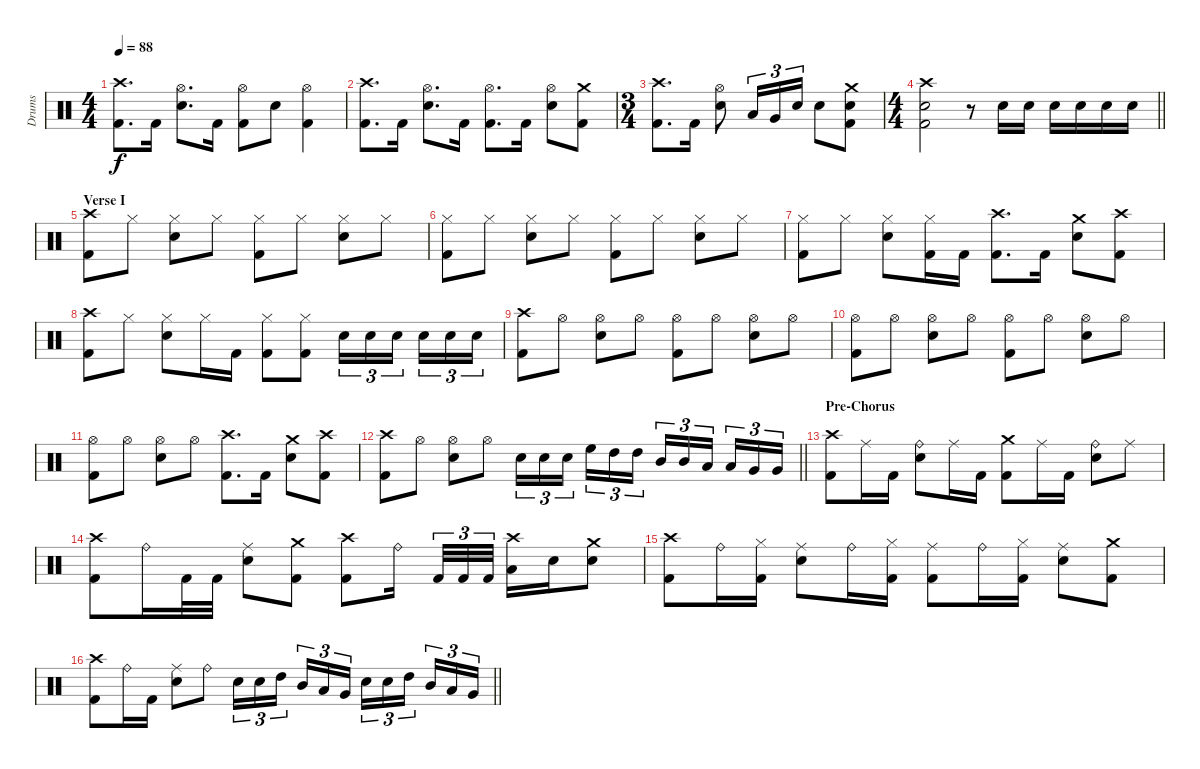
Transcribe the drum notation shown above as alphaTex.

\track ("Drums" "Drums") {instrument percussion}
\staff {score}
\articulation defaults
\ts (4 4)
\tempo 88
\clef neutral
\ks c
("Crash high (hit)" "Kick (hit) 2").8{d dy f} "Kick (hit) 2".16 ("Hi-Hat (open)" "Snare (hit) 2").8{d} "Kick (hit) 2".16 ("Hi-Hat (open)" "Kick (hit) 2").8 "Snare (hit) 2".8 ("Hi-Hat (open)" "Kick (hit) 2").4 |
("Crash high (hit)" "Kick (hit) 2").8{d} "Kick (hit) 2".16 ("Hi-Hat (open)" "Snare (hit) 2").8{d} "Kick (hit) 2".16 ("Hi-Hat (open)" "Kick (hit) 2").8{d} "Kick (hit) 2".16 ("Hi-Hat (open)" "Snare (hit) 2").8 ("Crash medium (hit)" "Kick (hit) 2").8 |
\ts (3 4)
("Crash high (hit)" "Kick (hit) 2").8{d} "Kick (hit) 2".16 ("Hi-Hat (open)" "Snare (hit) 2").8 "Low Tom (hit)".16{tu (3 2)} "Very Low Tom (hit)".16{tu (3 2)} "Snare (hit) 2".16{tu (3 2)} "Snare (hit) 2".8 ("Crash medium (hit)" "Snare (hit) 2" "Kick (hit) 2").8 |
\ts (4 4)
\barLineRight lightlight
("Crash high (hit)" "Snare (hit) 2" "Kick (hit) 2").2 r.8 "Electric Snare (hit)".16 "Electric Snare (hit)".16 "Electric Snare (hit)".16 "Electric Snare (hit)".16 "Electric Snare (hit)".16 "Electric Snare (hit)".16 |
\section ("" "Verse I")
("Crash high (hit)" "Kick (hit) 2").8 "Hi-Hat (closed)".8 ("Hi-Hat (closed)" "Snare (hit) 2").8 "Hi-Hat (closed)".8 ("Hi-Hat (closed)" "Kick (hit) 2").8 "Hi-Hat (closed)".8 ("Hi-Hat (closed)" "Snare (hit) 2").8 "Hi-Hat (closed)".8 |
("Hi-Hat (closed)" "Kick (hit) 2").8 "Hi-Hat (closed)".8 ("Hi-Hat (closed)" "Snare (hit) 2").8 "Hi-Hat (closed)".8 ("Hi-Hat (closed)" "Kick (hit) 2").8 "Hi-Hat (closed)".8 ("Hi-Hat (closed)" "Snare (hit) 2").8 "Hi-Hat (closed)".8 |
("Hi-Hat (closed)" "Kick (hit) 2").8 "Hi-Hat (closed)".8 ("Hi-Hat (closed)" "Snare (hit) 2").8 ("Hi-Hat (closed)" "Kick (hit) 2").16 "Kick (hit) 2".16 ("Crash high (hit)" "Kick (hit) 2").8{d} "Kick (hit) 2".16 ("Crash medium (hit)" "Snare (hit) 2").8 ("Crash high (hit)" "Kick (hit) 2").8 |
("Crash high (hit)" "Kick (hit) 2").8 "Hi-Hat (closed)".8 ("Hi-Hat (closed)" "Snare (hit) 2").8 "Hi-Hat (closed)".16 "Kick (hit) 2".16 ("Hi-Hat (closed)" "Kick (hit) 2").8 ("Hi-Hat (closed)" "Kick (hit) 2").8 "Snare (hit) 2".16{tu (3 2)} "Snare (hit) 2".16{tu (3 2)} "Snare (hit) 2".16{tu (3 2) beam splitsecondary} "Snare (hit) 2".16{tu (3 2)} "Snare (hit) 2".16{tu (3 2)} "Snare (hit) 2".16{tu (3 2)} |
("Crash high (hit)" "Kick (hit) 2").8 "Hi-Hat (open)".8 ("Hi-Hat (open)" "Snare (hit) 2").8 "Hi-Hat (open)".8 ("Hi-Hat (open)" "Kick (hit) 2").8 "Hi-Hat (open)".8 ("Hi-Hat (open)" "Snare (hit) 2").8 "Hi-Hat (open)".8 |
("Hi-Hat (open)" "Kick (hit) 2").8 "Hi-Hat (open)".8 ("Hi-Hat (open)" "Snare (hit) 2").8 "Hi-Hat (open)".8 ("Hi-Hat (open)" "Kick (hit) 2").8 "Hi-Hat (open)".8 ("Hi-Hat (open)" "Snare (hit) 2").8 "Hi-Hat (open)".8 |
("Hi-Hat (open)" "Kick (hit) 2").8 "Hi-Hat (open)".8 ("Hi-Hat (open)" "Snare (hit) 2").8 "Hi-Hat (open)".8 ("Crash high (hit)" "Kick (hit) 2").8{d} "Kick (hit) 2".16 ("Crash medium (hit)" "Snare (hit) 2").8 ("Crash high (hit)" "Kick (hit) 2").8 |
\barLineRight lightlight
("Crash high (hit)" "Kick (hit) 2").8 "Hi-Hat (open)".8 ("Hi-Hat (open)" "Snare (hit) 2").8 "Hi-Hat (open)".8 "Snare (hit) 2".16{tu (3 2)} "Snare (hit) 2".16{tu (3 2)} "Snare (hit) 2".16{tu (3 2) beam splitsecondary} "High Floor Tom (hit)".16{tu (3 2)} "High Tom (hit)".16{tu (3 2)} "High Tom (hit)".16{tu (3 2)} "Mid Tom (hit)".16{tu (3 2)} "Mid Tom (hit)".16{tu (3 2)} "Low Tom (hit)".16{tu (3 2) beam splitsecondary} "Low Tom (hit)".16{tu (3 2)} "Very Low Tom (hit)".16{tu (3 2)} "Very Low Tom (hit)".16{tu (3 2)} |
\section ("" "Pre-Chorus")
("Crash high (hit)" "Kick (hit) 2").8 "Ride (middle)".16 "Kick (hit) 2".16 ("Ride (bell)" "Snare (hit) 2").8 "Ride (middle)".16 "Kick (hit) 2".16 ("Crash medium (hit)" "Kick (hit) 2").8 "Ride (middle)".16 "Kick (hit) 2".16 ("Ride (bell)" "Snare (hit) 2").8 "Ride (middle)".8 |
("Crash high (hit)" "Kick (hit) 2").8 "Ride (bell)".16 "Kick (hit) 2".32 "Kick (hit) 2".32 ("Ride (middle)" "Snare (hit) 2").8 ("Crash medium (hit)" "Kick (hit) 2").8 ("Crash high (hit)" "Kick (hit) 2").8 "Ride (bell)".16{beam splitsecondary} "Kick (hit) 2".32{tu (3 2)} "Kick (hit) 2".32{tu (3 2)} "Kick (hit) 2".32{tu (3 2)} ("Crash high (hit)" "Low Tom (hit)").16 "Electric Snare (hit)".16 ("Crash medium (hit)" "Snare (hit) 2").8 |
("Crash high (hit)" "Kick (hit) 2").8 "Ride (bell)".16 ("Hi-Hat (closed)" "Kick (hit) 2").16 ("Ride (middle)" "Snare (hit) 2").8 "Ride (bell)".16 ("Hi-Hat (closed)" "Kick (hit) 2").16 ("Ride (middle)" "Kick (hit) 2").8 "Ride (bell)".16 ("Hi-Hat (closed)" "Kick (hit) 2").16 ("Ride (middle)" "Snare (hit) 2").8 ("Crash medium (hit)" "Kick (hit) 2").8 |
\barLineRight lightlight
("Crash high (hit)" "Kick (hit) 2").8 "Ride (bell)".16 "Kick (hit) 2".16 ("Ride (middle)" "Snare (hit) 2").8 "Ride (bell)".8 "Snare (hit) 2".16{tu (3 2)} "Snare (hit) 2".16{tu (3 2)} "High Tom (hit)".16{tu (3 2) beam splitsecondary} "Mid Tom (hit)".16{tu (3 2)} "Low Tom (hit)".16{tu (3 2)} "Very Low Tom (hit)".16{tu (3 2)} "Snare (hit) 2".16{tu (3 2)} "Snare (hit) 2".16{tu (3 2)} "High Tom (hit)".16{tu (3 2) beam splitsecondary} "Mid Tom (hit)".16{tu (3 2)} "Low Tom (hit)".16{tu (3 2)} "Very Low Tom (hit)".16{tu (3 2)}
